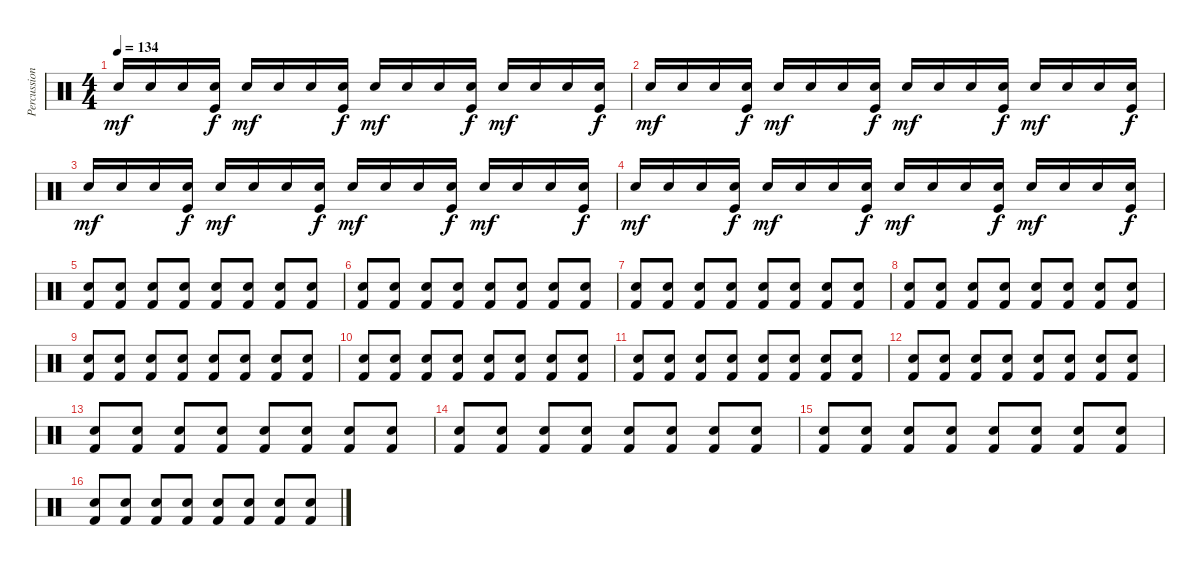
\track ("Percussion" "Percussion") {instrument percussion}
\staff {score}
\articulation defaults
\ts (4 4)
\tempo 134
\clef neutral
\ks c "Snare (hit) 2".16{dy mf} "Snare (hit) 2".16 "Snare (hit) 2".16
("Snare (hit) 2" "Kick (hit)").16{dy f} "Snare (hit) 2".16{dy mf} "Snare (hit) 2".16 "Snare (hit) 2".16 ("Snare (hit) 2" "Kick (hit)").16{dy f} "Snare (hit) 2".16{dy mf} "Snare (hit) 2".16 "Snare (hit) 2".16 ("Snare (hit) 2" "Kick (hit)").16{dy f} "Snare (hit) 2".16{dy mf} "Snare (hit) 2".16 "Snare (hit) 2".16 ("Snare (hit) 2" "Kick (hit)").16{dy f} |
"Snare (hit) 2".16{dy mf} "Snare (hit) 2".16 "Snare (hit) 2".16 ("Snare (hit) 2" "Kick (hit)").16{dy f} "Snare (hit) 2".16{dy mf} "Snare (hit) 2".16 "Snare (hit) 2".16 ("Snare (hit) 2" "Kick (hit)").16{dy f} "Snare (hit) 2".16{dy mf} "Snare (hit) 2".16 "Snare (hit) 2".16 ("Snare (hit) 2" "Kick (hit)").16{dy f} "Snare (hit) 2".16{dy mf} "Snare (hit) 2".16 "Snare (hit) 2".16 ("Snare (hit) 2" "Kick (hit)").16{dy f} |
"Snare (hit) 2".16{dy mf} "Snare (hit) 2".16 "Snare (hit) 2".16 ("Snare (hit) 2" "Kick (hit)").16{dy f} "Snare (hit) 2".16{dy mf} "Snare (hit) 2".16 "Snare (hit) 2".16 ("Snare (hit) 2" "Kick (hit)").16{dy f} "Snare (hit) 2".16{dy mf} "Snare (hit) 2".16 "Snare (hit) 2".16 ("Snare (hit) 2" "Kick (hit)").16{dy f} "Snare (hit) 2".16{dy mf} "Snare (hit) 2".16 "Snare (hit) 2".16 ("Snare (hit) 2" "Kick (hit)").16{dy f} |
"Snare (hit) 2".16{dy mf} "Snare (hit) 2".16 "Snare (hit) 2".16 ("Snare (hit) 2" "Kick (hit)").16{dy f} "Snare (hit) 2".16{dy mf} "Snare (hit) 2".16 "Snare (hit) 2".16 ("Snare (hit) 2" "Kick (hit)").16{dy f} "Snare (hit) 2".16{dy mf} "Snare (hit) 2".16 "Snare (hit) 2".16 ("Snare (hit) 2" "Kick (hit)").16{dy f} "Snare (hit) 2".16{dy mf} "Snare (hit) 2".16 "Snare (hit) 2".16 ("Snare (hit) 2" "Kick (hit)").16{dy f} |
("Snare (hit) 2" "Kick (hit) 2").8 ("Snare (hit) 2" "Kick (hit) 2").8 ("Snare (hit) 2" "Kick (hit) 2").8 ("Snare (hit) 2" "Kick (hit) 2").8 ("Snare (hit) 2" "Kick (hit) 2").8 ("Snare (hit) 2" "Kick (hit) 2").8 ("Snare (hit) 2" "Kick (hit) 2").8 ("Snare (hit) 2" "Kick (hit) 2").8 |
("Snare (hit) 2" "Kick (hit) 2").8 ("Snare (hit) 2" "Kick (hit) 2").8 ("Snare (hit) 2" "Kick (hit) 2").8 ("Snare (hit) 2" "Kick (hit) 2").8 ("Snare (hit) 2" "Kick (hit) 2").8 ("Snare (hit) 2" "Kick (hit) 2").8 ("Snare (hit) 2" "Kick (hit) 2").8 ("Snare (hit) 2" "Kick (hit) 2").8 |
("Snare (hit) 2" "Kick (hit) 2").8 ("Snare (hit) 2" "Kick (hit) 2").8 ("Snare (hit) 2" "Kick (hit) 2").8 ("Snare (hit) 2" "Kick (hit) 2").8 ("Snare (hit) 2" "Kick (hit) 2").8 ("Snare (hit) 2" "Kick (hit) 2").8 ("Snare (hit) 2" "Kick (hit) 2").8 ("Snare (hit) 2" "Kick (hit) 2").8 |
("Snare (hit) 2" "Kick (hit) 2").8 ("Snare (hit) 2" "Kick (hit) 2").8 ("Snare (hit) 2" "Kick (hit) 2").8 ("Snare (hit) 2" "Kick (hit) 2").8 ("Snare (hit) 2" "Kick (hit) 2").8 ("Snare (hit) 2" "Kick (hit) 2").8 ("Snare (hit) 2" "Kick (hit) 2").8 ("Snare (hit) 2" "Kick (hit) 2").8 |
("Snare (hit) 2" "Kick (hit) 2").8 ("Snare (hit) 2" "Kick (hit) 2").8 ("Snare (hit) 2" "Kick (hit) 2").8 ("Snare (hit) 2" "Kick (hit) 2").8 ("Snare (hit) 2" "Kick (hit) 2").8 ("Snare (hit) 2" "Kick (hit) 2").8 ("Snare (hit) 2" "Kick (hit) 2").8 ("Snare (hit) 2" "Kick (hit) 2").8 |
("Snare (hit) 2" "Kick (hit) 2").8 ("Snare (hit) 2" "Kick (hit) 2").8 ("Snare (hit) 2" "Kick (hit) 2").8 ("Snare (hit) 2" "Kick (hit) 2").8 ("Snare (hit) 2" "Kick (hit) 2").8 ("Snare (hit) 2" "Kick (hit) 2").8 ("Snare (hit) 2" "Kick (hit) 2").8 ("Snare (hit) 2" "Kick (hit) 2").8 |
("Snare (hit) 2" "Kick (hit) 2").8 ("Snare (hit) 2" "Kick (hit) 2").8 ("Snare (hit) 2" "Kick (hit) 2").8 ("Snare (hit) 2" "Kick (hit) 2").8 ("Snare (hit) 2" "Kick (hit) 2").8 ("Snare (hit) 2" "Kick (hit) 2").8 ("Snare (hit) 2" "Kick (hit) 2").8 ("Snare (hit) 2" "Kick (hit) 2").8 |
("Snare (hit) 2" "Kick (hit) 2").8 ("Snare (hit) 2" "Kick (hit) 2").8 ("Snare (hit) 2" "Kick (hit) 2").8 ("Snare (hit) 2" "Kick (hit) 2").8 ("Snare (hit) 2" "Kick (hit) 2").8 ("Snare (hit) 2" "Kick (hit) 2").8 ("Snare (hit) 2" "Kick (hit) 2").8 ("Snare (hit) 2" "Kick (hit) 2").8 |
("Snare (hit) 2" "Kick (hit) 2").8 ("Snare (hit) 2" "Kick (hit) 2").8 ("Snare (hit) 2" "Kick (hit) 2").8 ("Snare (hit) 2" "Kick (hit) 2").8 ("Snare (hit) 2" "Kick (hit) 2").8 ("Snare (hit) 2" "Kick (hit) 2").8 ("Snare (hit) 2" "Kick (hit) 2").8 ("Snare (hit) 2" "Kick (hit) 2").8 |
("Snare (hit) 2" "Kick (hit) 2").8 ("Snare (hit) 2" "Kick (hit) 2").8 ("Snare (hit) 2" "Kick (hit) 2").8 ("Snare (hit) 2" "Kick (hit) 2").8 ("Snare (hit) 2" "Kick (hit) 2").8 ("Snare (hit) 2" "Kick (hit) 2").8 ("Snare (hit) 2" "Kick (hit) 2").8 ("Snare (hit) 2" "Kick (hit) 2").8 |
("Snare (hit) 2" "Kick (hit) 2").8 ("Snare (hit) 2" "Kick (hit) 2").8 ("Snare (hit) 2" "Kick (hit) 2").8 ("Snare (hit) 2" "Kick (hit) 2").8 ("Snare (hit) 2" "Kick (hit) 2").8 ("Snare (hit) 2" "Kick (hit) 2").8 ("Snare (hit) 2" "Kick (hit) 2").8 ("Snare (hit) 2" "Kick (hit) 2").8 |
("Snare (hit) 2" "Kick (hit) 2").8 ("Snare (hit) 2" "Kick (hit) 2").8 ("Snare (hit) 2" "Kick (hit) 2").8 ("Snare (hit) 2" "Kick (hit) 2").8 ("Snare (hit) 2" "Kick (hit) 2").8 ("Snare (hit) 2" "Kick (hit) 2").8 ("Snare (hit) 2" "Kick (hit) 2").8 ("Snare (hit) 2" "Kick (hit) 2").8
